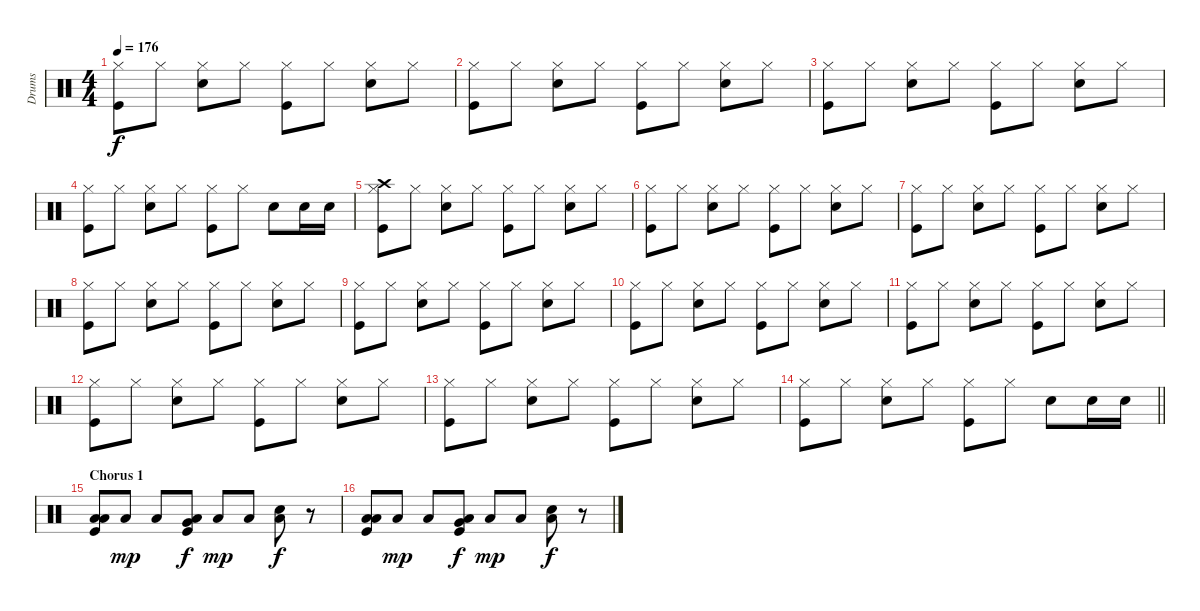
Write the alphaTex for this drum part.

\track ("Drums" "Drums") {instrument percussion}
\staff {score}
\articulation defaults
\ts (4 4)
\tempo 176
\clef neutral
\ks c
("Hi-Hat (closed)" "Kick (hit)").8{dy f} "Hi-Hat (closed)".8 ("Hi-Hat (closed)" "Electric Snare (hit)").8 "Hi-Hat (closed)".8 ("Hi-Hat (closed)" "Kick (hit)").8 "Hi-Hat (closed)".8 ("Hi-Hat (closed)" "Electric Snare (hit)").8 "Hi-Hat (closed)".8 |
("Hi-Hat (closed)" "Kick (hit)").8 "Hi-Hat (closed)".8 ("Hi-Hat (closed)" "Electric Snare (hit)").8 "Hi-Hat (closed)".8 ("Hi-Hat (closed)" "Kick (hit)").8 "Hi-Hat (closed)".8 ("Hi-Hat (closed)" "Electric Snare (hit)").8 "Hi-Hat (closed)".8 |
("Hi-Hat (closed)" "Kick (hit)").8 "Hi-Hat (closed)".8 ("Hi-Hat (closed)" "Electric Snare (hit)").8 "Hi-Hat (closed)".8 ("Hi-Hat (closed)" "Kick (hit)").8 "Hi-Hat (closed)".8 ("Hi-Hat (closed)" "Electric Snare (hit)").8 "Hi-Hat (closed)".8 |
("Hi-Hat (closed)" "Kick (hit)").8 "Hi-Hat (closed)".8 ("Hi-Hat (closed)" "Electric Snare (hit)").8 "Hi-Hat (closed)".8 ("Hi-Hat (closed)" "Kick (hit)").8 "Hi-Hat (closed)".8 "Electric Snare (hit)".8 "Electric Snare (hit)".16 "Electric Snare (hit)".16 |
("Crash high (hit)" "Hi-Hat (closed)" "Kick (hit)").8 "Hi-Hat (closed)".8 ("Hi-Hat (closed)" "Electric Snare (hit)").8 "Hi-Hat (closed)".8 ("Hi-Hat (closed)" "Kick (hit)").8 "Hi-Hat (closed)".8 ("Hi-Hat (closed)" "Electric Snare (hit)").8 "Hi-Hat (closed)".8 |
("Hi-Hat (closed)" "Kick (hit)").8 "Hi-Hat (closed)".8 ("Hi-Hat (closed)" "Electric Snare (hit)").8 "Hi-Hat (closed)".8 ("Hi-Hat (closed)" "Kick (hit)").8 "Hi-Hat (closed)".8 ("Hi-Hat (closed)" "Electric Snare (hit)").8 "Hi-Hat (closed)".8 |
("Hi-Hat (closed)" "Kick (hit)").8 "Hi-Hat (closed)".8 ("Hi-Hat (closed)" "Electric Snare (hit)").8 "Hi-Hat (closed)".8 ("Hi-Hat (closed)" "Kick (hit)").8 "Hi-Hat (closed)".8 ("Hi-Hat (closed)" "Electric Snare (hit)").8 "Hi-Hat (closed)".8 |
("Hi-Hat (closed)" "Kick (hit)").8 "Hi-Hat (closed)".8 ("Hi-Hat (closed)" "Electric Snare (hit)").8 "Hi-Hat (closed)".8 ("Hi-Hat (closed)" "Kick (hit)").8 "Hi-Hat (closed)".8 ("Hi-Hat (closed)" "Electric Snare (hit)").8 "Hi-Hat (closed)".8 |
("Hi-Hat (closed)" "Kick (hit)").8 "Hi-Hat (closed)".8 ("Hi-Hat (closed)" "Electric Snare (hit)").8 "Hi-Hat (closed)".8 ("Hi-Hat (closed)" "Kick (hit)").8 "Hi-Hat (closed)".8 ("Hi-Hat (closed)" "Electric Snare (hit)").8 "Hi-Hat (closed)".8 |
("Hi-Hat (closed)" "Kick (hit)").8 "Hi-Hat (closed)".8 ("Hi-Hat (closed)" "Electric Snare (hit)").8 "Hi-Hat (closed)".8 ("Hi-Hat (closed)" "Kick (hit)").8 "Hi-Hat (closed)".8 ("Hi-Hat (closed)" "Electric Snare (hit)").8 "Hi-Hat (closed)".8 |
("Hi-Hat (closed)" "Kick (hit)").8 "Hi-Hat (closed)".8 ("Hi-Hat (closed)" "Electric Snare (hit)").8 "Hi-Hat (closed)".8 ("Hi-Hat (closed)" "Kick (hit)").8 "Hi-Hat (closed)".8 ("Hi-Hat (closed)" "Electric Snare (hit)").8 "Hi-Hat (closed)".8 |
("Hi-Hat (closed)" "Kick (hit)").8 "Hi-Hat (closed)".8 ("Hi-Hat (closed)" "Electric Snare (hit)").8 "Hi-Hat (closed)".8 ("Hi-Hat (closed)" "Kick (hit)").8 "Hi-Hat (closed)".8 ("Hi-Hat (closed)" "Electric Snare (hit)").8 "Hi-Hat (closed)".8 |
("Hi-Hat (closed)" "Kick (hit)").8 "Hi-Hat (closed)".8 ("Hi-Hat (closed)" "Electric Snare (hit)").8 "Hi-Hat (closed)".8 ("Hi-Hat (closed)" "Kick (hit)").8 "Hi-Hat (closed)".8 ("Hi-Hat (closed)" "Electric Snare (hit)").8 "Hi-Hat (closed)".8 |
\barLineRight lightlight
("Hi-Hat (closed)" "Kick (hit)").8 "Hi-Hat (closed)".8 ("Hi-Hat (closed)" "Electric Snare (hit)").8 "Hi-Hat (closed)".8 ("Hi-Hat (closed)" "Kick (hit)").8 "Hi-Hat (closed)".8 "Electric Snare (hit)".8 "Electric Snare (hit)".16 "Electric Snare (hit)".16 |
\section ("" "Chorus 1")
("Low Tom (hit)" "Low Floor Tom (hit)" "Kick (hit)").8 "Low Floor Tom (hit)".8{dy mp} "Low Floor Tom (hit)".8 ("Very Low Tom (hit)" "Low Floor Tom (hit)" "Kick (hit)").8{dy f} "Low Floor Tom (hit)".8{dy mp} "Low Floor Tom (hit)".8 ("Electric Snare (hit)" "Low Floor Tom (hit)").8{dy f} r.8 |
("Low Tom (hit)" "Low Floor Tom (hit)" "Kick (hit)").8 "Low Floor Tom (hit)".8{dy mp} "Low Floor Tom (hit)".8 ("Very Low Tom (hit)" "Low Floor Tom (hit)" "Kick (hit)").8{dy f} "Low Floor Tom (hit)".8{dy mp} "Low Floor Tom (hit)".8 ("Electric Snare (hit)" "Low Floor Tom (hit)").8{dy f} r.8
